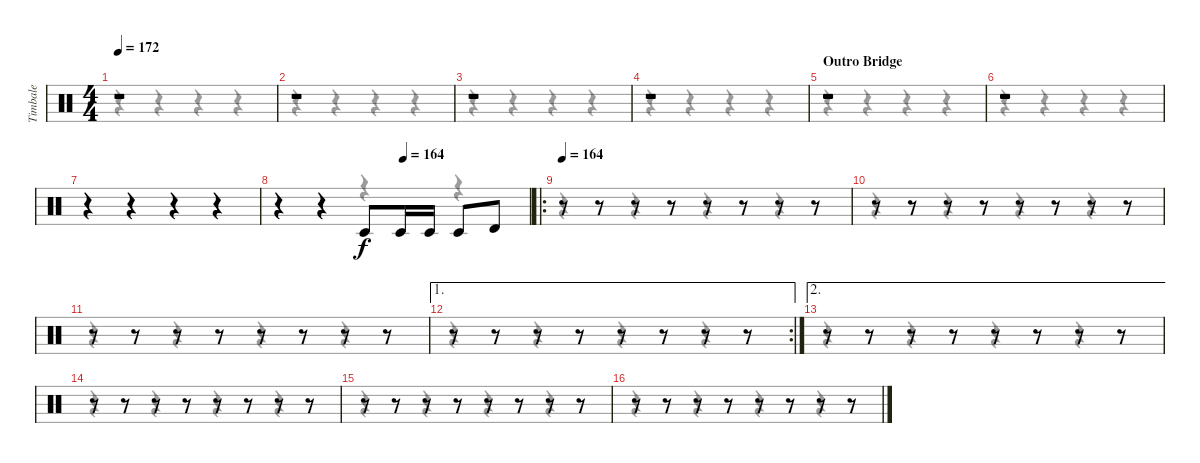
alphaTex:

\track ("Timbale" "Timbale") {instrument percussion}
\staff {score}
\articulation defaults
\voice
\ts (4 4)
\tempo 172
\clef neutral
\ks c
r.1{dy f} |
r.1 |
r.1 |
r.1 |
\section ("" "Outro Bridge")
r.1 |
r.1 |
r.4 r.4 r.4 r.4 |
\tempo (164 0.5)
r.4 r.4 "Timbale low (hit)".8 "Timbale low (hit)".16 "Timbale low (hit)".16 "Timbale low (hit)".8 "Timbale high (hit)".8 |
\ro
\tempo 164
r.8 r.8 r.8 r.8 r.8 r.8 r.8 r.8 |
r.8 r.8 r.8 r.8 r.8 r.8 r.8 r.8 |
r.8 r.8 r.8 r.8 r.8 r.8 r.8 r.8 |
\ae 1
\rc 2
r.8 r.8 r.8 r.8 r.8 r.8 r.8 r.8 |
\ae 2
r.8 r.8 r.8 r.8 r.8 r.8 r.8 r.8 |
r.8 r.8 r.8 r.8 r.8 r.8 r.8 r.8 |
r.8 r.8 r.8 r.8 r.8 r.8 r.8 r.8 |
r.8 r.8 r.8 r.8 r.8 r.8 r.8 r.8
\voice
\clef neutral
\ottava regular
\simile none
\ks c
r.4{dy f} r.4 r.4 r.4 |
r.4 r.4 r.4 r.4 |
r.4 r.4 r.4 r.4 |
r.4 r.4 r.4 r.4 |
r.4 r.4 r.4 r.4 |
r.4 r.4 r.4 r.4 |
r.4 r.4 r.4 r.4 |
r.4 r.4 r.4 r.4 |
r.4 r.4 r.4 r.4 |
r.4 r.4 r.4 r.4 |
r.4 r.4 r.4 r.4 |
r.4 r.4 r.4 r.4 |
r.4 r.4 r.4 r.4 |
r.4 r.4 r.4 r.4 |
r.4 r.4 r.4 r.4 |
r.4 r.4 r.4 r.4
